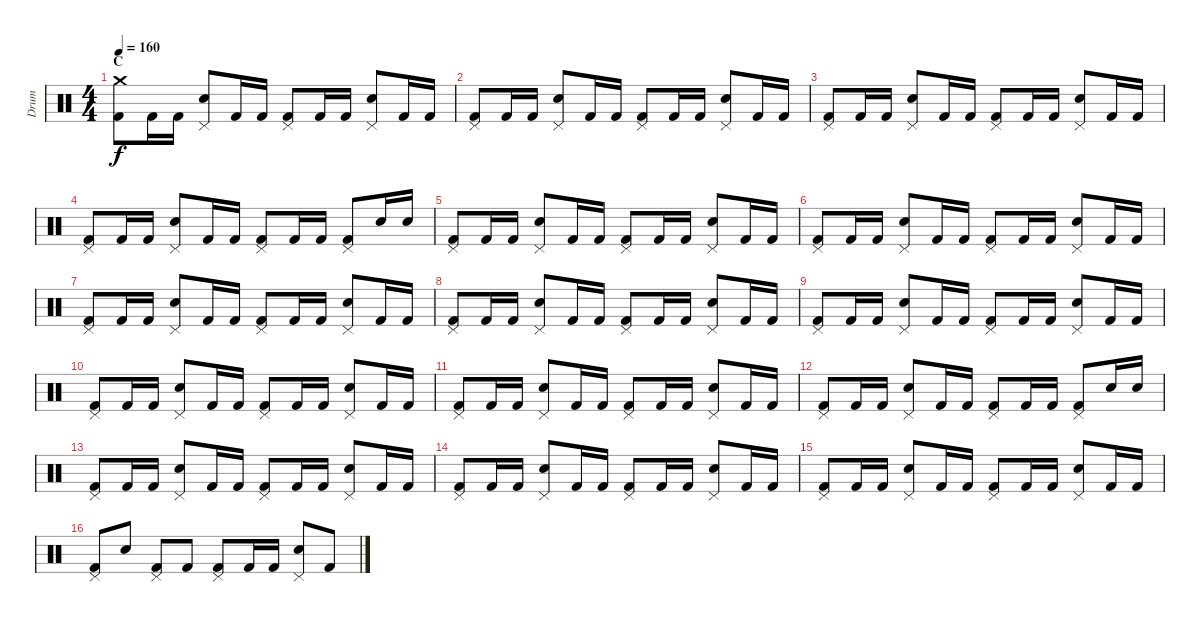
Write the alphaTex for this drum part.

\track ("Drum" "Drum") {instrument percussion}
\staff {score}
\articulation defaults
\ts (4 4)
\section ("" "C")
\tempo 160
\clef neutral
\ks c
("Crash medium (hit)" "Kick (hit) 2").8{dy f} "Kick (hit) 2".16 "Kick (hit) 2".16 ("Pedal Hi-Hat (hit)" "Snare (hit) 2").8 "Kick (hit) 2".16 "Kick (hit) 2".16 ("Pedal Hi-Hat (hit)" "Kick (hit) 2").8 "Kick (hit) 2".16 "Kick (hit) 2".16 ("Pedal Hi-Hat (hit)" "Snare (hit) 2").8 "Kick (hit) 2".16 "Kick (hit) 2".16 |
("Pedal Hi-Hat (hit)" "Kick (hit) 2").8 "Kick (hit) 2".16 "Kick (hit) 2".16 ("Pedal Hi-Hat (hit)" "Snare (hit) 2").8 "Kick (hit) 2".16 "Kick (hit) 2".16 ("Pedal Hi-Hat (hit)" "Kick (hit) 2").8 "Kick (hit) 2".16 "Kick (hit) 2".16 ("Pedal Hi-Hat (hit)" "Snare (hit) 2").8 "Kick (hit) 2".16 "Kick (hit) 2".16 |
("Pedal Hi-Hat (hit)" "Kick (hit) 2").8 "Kick (hit) 2".16 "Kick (hit) 2".16 ("Pedal Hi-Hat (hit)" "Snare (hit) 2").8 "Kick (hit) 2".16 "Kick (hit) 2".16 ("Pedal Hi-Hat (hit)" "Kick (hit) 2").8 "Kick (hit) 2".16 "Kick (hit) 2".16 ("Pedal Hi-Hat (hit)" "Snare (hit) 2").8 "Kick (hit) 2".16 "Kick (hit) 2".16 |
("Pedal Hi-Hat (hit)" "Kick (hit) 2").8 "Kick (hit) 2".16 "Kick (hit) 2".16 ("Pedal Hi-Hat (hit)" "Snare (hit) 2").8 "Kick (hit) 2".16 "Kick (hit) 2".16 ("Pedal Hi-Hat (hit)" "Kick (hit) 2").8 "Kick (hit) 2".16 "Kick (hit) 2".16 ("Pedal Hi-Hat (hit)" "Kick (hit) 2").8 "Snare (hit) 2".16 "Snare (hit) 2".16 |
("Pedal Hi-Hat (hit)" "Kick (hit) 2").8 "Kick (hit) 2".16 "Kick (hit) 2".16 ("Pedal Hi-Hat (hit)" "Snare (hit) 2").8 "Kick (hit) 2".16 "Kick (hit) 2".16 ("Pedal Hi-Hat (hit)" "Kick (hit) 2").8 "Kick (hit) 2".16 "Kick (hit) 2".16 ("Pedal Hi-Hat (hit)" "Snare (hit) 2").8 "Kick (hit) 2".16 "Kick (hit) 2".16 |
("Pedal Hi-Hat (hit)" "Kick (hit) 2").8 "Kick (hit) 2".16 "Kick (hit) 2".16 ("Pedal Hi-Hat (hit)" "Snare (hit) 2").8 "Kick (hit) 2".16 "Kick (hit) 2".16 ("Pedal Hi-Hat (hit)" "Kick (hit) 2").8 "Kick (hit) 2".16 "Kick (hit) 2".16 ("Pedal Hi-Hat (hit)" "Snare (hit) 2").8 "Kick (hit) 2".16 "Kick (hit) 2".16 |
("Pedal Hi-Hat (hit)" "Kick (hit) 2").8 "Kick (hit) 2".16 "Kick (hit) 2".16 ("Pedal Hi-Hat (hit)" "Snare (hit) 2").8 "Kick (hit) 2".16 "Kick (hit) 2".16 ("Pedal Hi-Hat (hit)" "Kick (hit) 2").8 "Kick (hit) 2".16 "Kick (hit) 2".16 ("Pedal Hi-Hat (hit)" "Snare (hit) 2").8 "Kick (hit) 2".16 "Kick (hit) 2".16 |
("Pedal Hi-Hat (hit)" "Kick (hit) 2").8 "Kick (hit) 2".16 "Kick (hit) 2".16 ("Pedal Hi-Hat (hit)" "Snare (hit) 2").8 "Kick (hit) 2".16 "Kick (hit) 2".16 ("Pedal Hi-Hat (hit)" "Kick (hit) 2").8 "Kick (hit) 2".16 "Kick (hit) 2".16 ("Pedal Hi-Hat (hit)" "Snare (hit) 2").8 "Kick (hit) 2".16 "Kick (hit) 2".16 |
("Pedal Hi-Hat (hit)" "Kick (hit) 2").8 "Kick (hit) 2".16 "Kick (hit) 2".16 ("Pedal Hi-Hat (hit)" "Snare (hit) 2").8 "Kick (hit) 2".16 "Kick (hit) 2".16 ("Pedal Hi-Hat (hit)" "Kick (hit) 2").8 "Kick (hit) 2".16 "Kick (hit) 2".16 ("Pedal Hi-Hat (hit)" "Snare (hit) 2").8 "Kick (hit) 2".16 "Kick (hit) 2".16 |
("Pedal Hi-Hat (hit)" "Kick (hit) 2").8 "Kick (hit) 2".16 "Kick (hit) 2".16 ("Pedal Hi-Hat (hit)" "Snare (hit) 2").8 "Kick (hit) 2".16 "Kick (hit) 2".16 ("Pedal Hi-Hat (hit)" "Kick (hit) 2").8 "Kick (hit) 2".16 "Kick (hit) 2".16 ("Pedal Hi-Hat (hit)" "Snare (hit) 2").8 "Kick (hit) 2".16 "Kick (hit) 2".16 |
("Pedal Hi-Hat (hit)" "Kick (hit) 2").8 "Kick (hit) 2".16 "Kick (hit) 2".16 ("Pedal Hi-Hat (hit)" "Snare (hit) 2").8 "Kick (hit) 2".16 "Kick (hit) 2".16 ("Pedal Hi-Hat (hit)" "Kick (hit) 2").8 "Kick (hit) 2".16 "Kick (hit) 2".16 ("Pedal Hi-Hat (hit)" "Snare (hit) 2").8 "Kick (hit) 2".16 "Kick (hit) 2".16 |
("Pedal Hi-Hat (hit)" "Kick (hit) 2").8 "Kick (hit) 2".16 "Kick (hit) 2".16 ("Pedal Hi-Hat (hit)" "Snare (hit) 2").8 "Kick (hit) 2".16 "Kick (hit) 2".16 ("Pedal Hi-Hat (hit)" "Kick (hit) 2").8 "Kick (hit) 2".16 "Kick (hit) 2".16 ("Pedal Hi-Hat (hit)" "Kick (hit) 2").8 "Snare (hit) 2".16 "Snare (hit) 2".16 |
("Pedal Hi-Hat (hit)" "Kick (hit) 2").8 "Kick (hit) 2".16 "Kick (hit) 2".16 ("Pedal Hi-Hat (hit)" "Snare (hit) 2").8 "Kick (hit) 2".16 "Kick (hit) 2".16 ("Pedal Hi-Hat (hit)" "Kick (hit) 2").8 "Kick (hit) 2".16 "Kick (hit) 2".16 ("Pedal Hi-Hat (hit)" "Snare (hit) 2").8 "Kick (hit) 2".16 "Kick (hit) 2".16 |
("Pedal Hi-Hat (hit)" "Kick (hit) 2").8 "Kick (hit) 2".16 "Kick (hit) 2".16 ("Pedal Hi-Hat (hit)" "Snare (hit) 2").8 "Kick (hit) 2".16 "Kick (hit) 2".16 ("Pedal Hi-Hat (hit)" "Kick (hit) 2").8 "Kick (hit) 2".16 "Kick (hit) 2".16 ("Pedal Hi-Hat (hit)" "Snare (hit) 2").8 "Kick (hit) 2".16 "Kick (hit) 2".16 |
("Pedal Hi-Hat (hit)" "Kick (hit) 2").8 "Kick (hit) 2".16 "Kick (hit) 2".16 ("Pedal Hi-Hat (hit)" "Snare (hit) 2").8 "Kick (hit) 2".16 "Kick (hit) 2".16 ("Pedal Hi-Hat (hit)" "Kick (hit) 2").8 "Kick (hit) 2".16 "Kick (hit) 2".16 ("Pedal Hi-Hat (hit)" "Snare (hit) 2").8 "Kick (hit) 2".16 "Kick (hit) 2".16 |
("Pedal Hi-Hat (hit)" "Kick (hit) 2").8 "Snare (hit) 2".8 ("Pedal Hi-Hat (hit)" "Kick (hit) 2").8 "Kick (hit) 2".8 ("Pedal Hi-Hat (hit)" "Kick (hit) 2").8 "Kick (hit) 2".16 "Kick (hit) 2".16 ("Pedal Hi-Hat (hit)" "Snare (hit) 2").8 "Kick (hit) 2".8
